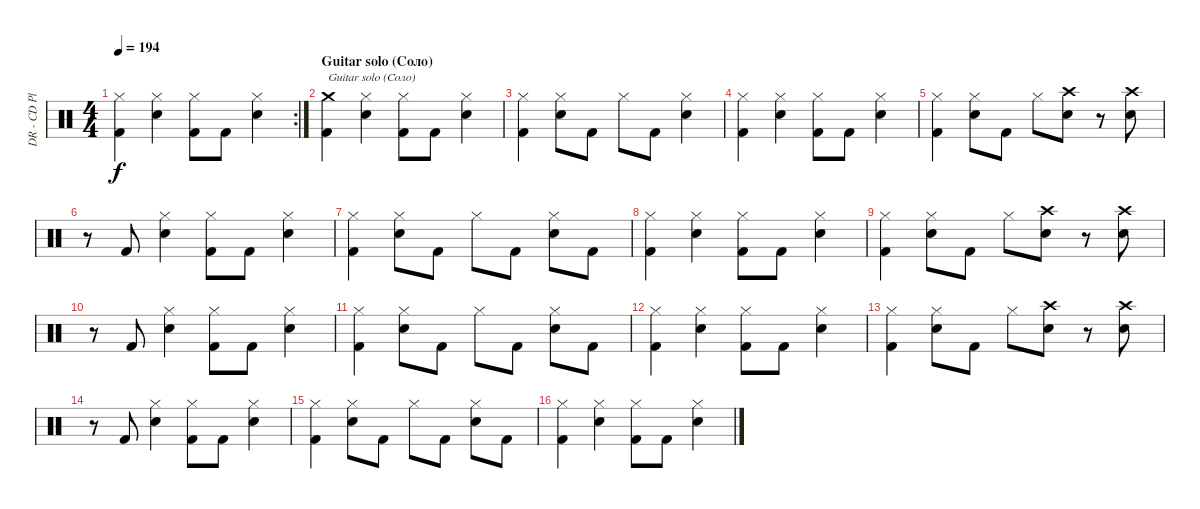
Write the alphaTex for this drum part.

\track ("DR - CD Player" "DR - CD Pl") {instrument percussion}
\staff {score}
\articulation defaults
\rc 2
\ts (4 4)
\tempo 194
\clef neutral
\ks c
("Kick (hit) 2" "Hi-Hat (closed)").4{dy f} ("Snare (hit) 2" "Hi-Hat (closed)").4 ("Kick (hit) 2" "Hi-Hat (closed)").8 "Kick (hit) 2".8 ("Snare (hit) 2" "Hi-Hat (closed)").4 |
\section ("" "Guitar solo (Cоло)")
("Kick (hit) 2" "Crash medium (hit)").4{txt "Guitar solo (Cоло)"} ("Snare (hit) 2" "Hi-Hat (closed)").4 ("Kick (hit) 2" "Hi-Hat (closed)").8 "Kick (hit) 2".8 ("Snare (hit) 2" "Hi-Hat (closed)").4 |
("Kick (hit) 2" "Hi-Hat (closed)").4 ("Snare (hit) 2" "Hi-Hat (closed)").8 "Kick (hit) 2".8 "Hi-Hat (closed)".8 "Kick (hit) 2".8 ("Snare (hit) 2" "Hi-Hat (closed)").4 |
("Kick (hit) 2" "Hi-Hat (closed)").4 ("Snare (hit) 2" "Hi-Hat (closed)").4 ("Kick (hit) 2" "Hi-Hat (closed)").8 "Kick (hit) 2".8 ("Snare (hit) 2" "Hi-Hat (closed)").4 |
("Kick (hit) 2" "Hi-Hat (closed)").4 ("Snare (hit) 2" "Hi-Hat (closed)").8 "Kick (hit) 2".8 "Hi-Hat (closed)".8 ("Snare (hit) 2" "Crash high (hit)").8 r.8 ("Snare (hit) 2" "Crash high (hit)").8 |
r.8 "Kick (hit) 2".8 ("Snare (hit) 2" "Hi-Hat (closed)").4 ("Kick (hit) 2" "Hi-Hat (closed)").8 "Kick (hit) 2".8 ("Snare (hit) 2" "Hi-Hat (closed)").4 |
("Kick (hit) 2" "Hi-Hat (closed)").4 ("Snare (hit) 2" "Hi-Hat (closed)").8 "Kick (hit) 2".8 "Hi-Hat (closed)".8 "Kick (hit) 2".8 ("Snare (hit) 2" "Hi-Hat (closed)").8 "Kick (hit) 2".8 |
("Kick (hit) 2" "Hi-Hat (closed)").4 ("Snare (hit) 2" "Hi-Hat (closed)").4 ("Kick (hit) 2" "Hi-Hat (closed)").8 "Kick (hit) 2".8 ("Snare (hit) 2" "Hi-Hat (closed)").4 |
("Kick (hit) 2" "Hi-Hat (closed)").4 ("Snare (hit) 2" "Hi-Hat (closed)").8 "Kick (hit) 2".8 "Hi-Hat (closed)".8 ("Snare (hit) 2" "Crash high (hit)").8 r.8 ("Snare (hit) 2" "Crash high (hit)").8 |
r.8 "Kick (hit) 2".8 ("Snare (hit) 2" "Hi-Hat (closed)").4 ("Kick (hit) 2" "Hi-Hat (closed)").8 "Kick (hit) 2".8 ("Snare (hit) 2" "Hi-Hat (closed)").4 |
("Kick (hit) 2" "Hi-Hat (closed)").4 ("Snare (hit) 2" "Hi-Hat (closed)").8 "Kick (hit) 2".8 "Hi-Hat (closed)".8 "Kick (hit) 2".8 ("Snare (hit) 2" "Hi-Hat (closed)").8 "Kick (hit) 2".8 |
("Kick (hit) 2" "Hi-Hat (closed)").4 ("Snare (hit) 2" "Hi-Hat (closed)").4 ("Kick (hit) 2" "Hi-Hat (closed)").8 "Kick (hit) 2".8 ("Snare (hit) 2" "Hi-Hat (closed)").4 |
("Kick (hit) 2" "Hi-Hat (closed)").4 ("Snare (hit) 2" "Hi-Hat (closed)").8 "Kick (hit) 2".8 "Hi-Hat (closed)".8 ("Snare (hit) 2" "Crash high (hit)").8 r.8 ("Snare (hit) 2" "Crash high (hit)").8 |
r.8 "Kick (hit) 2".8 ("Snare (hit) 2" "Hi-Hat (closed)").4 ("Kick (hit) 2" "Hi-Hat (closed)").8 "Kick (hit) 2".8 ("Snare (hit) 2" "Hi-Hat (closed)").4 |
("Kick (hit) 2" "Hi-Hat (closed)").4 ("Snare (hit) 2" "Hi-Hat (closed)").8 "Kick (hit) 2".8 "Hi-Hat (closed)".8 "Kick (hit) 2".8 ("Snare (hit) 2" "Hi-Hat (closed)").8 "Kick (hit) 2".8 |
("Kick (hit) 2" "Hi-Hat (closed)").4 ("Snare (hit) 2" "Hi-Hat (closed)").4 ("Kick (hit) 2" "Hi-Hat (closed)").8 "Kick (hit) 2".8 ("Snare (hit) 2" "Hi-Hat (closed)").4
